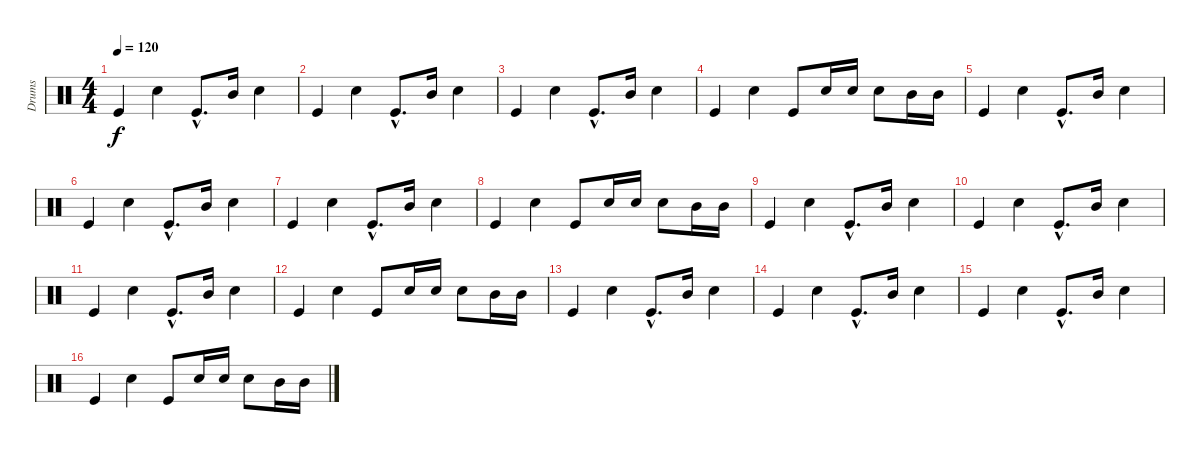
\track ("Drums" "Drums") {instrument percussion}
\staff {score}
\articulation defaults
\ts (4 4)
\tempo 120
\clef neutral
\ks c "Kick (hit)".4{dy f} "Snare (hit) 2".4 "Kick (hit)"{hac}.8{d} "Mid Tom (hit)".16 "Snare (hit) 2".4
|
"Kick (hit)".4 "Snare (hit) 2".4 "Kick (hit)"{hac}.8{d} "Mid Tom (hit)".16 "Snare (hit) 2".4 |
"Kick (hit)".4 "Snare (hit) 2".4 "Kick (hit)"{hac}.8{d} "Mid Tom (hit)".16 "Snare (hit) 2".4 |
"Kick (hit)".4 "Snare (hit) 2".4 "Kick (hit)".8 "Snare (hit) 2".16 "Snare (hit) 2".16 "Snare (hit) 2".8 "Mid Tom (hit)".16 "Mid Tom (hit)".16 |
"Kick (hit)".4 "Snare (hit) 2".4 "Kick (hit)"{hac}.8{d} "Mid Tom (hit)".16 "Snare (hit) 2".4 |
"Kick (hit)".4 "Snare (hit) 2".4 "Kick (hit)"{hac}.8{d} "Mid Tom (hit)".16 "Snare (hit) 2".4 |
"Kick (hit)".4 "Snare (hit) 2".4 "Kick (hit)"{hac}.8{d} "Mid Tom (hit)".16 "Snare (hit) 2".4 |
"Kick (hit)".4 "Snare (hit) 2".4 "Kick (hit)".8 "Snare (hit) 2".16 "Snare (hit) 2".16 "Snare (hit) 2".8 "Mid Tom (hit)".16 "Mid Tom (hit)".16 |
"Kick (hit)".4 "Snare (hit) 2".4 "Kick (hit)"{hac}.8{d} "Mid Tom (hit)".16 "Snare (hit) 2".4 |
"Kick (hit)".4 "Snare (hit) 2".4 "Kick (hit)"{hac}.8{d} "Mid Tom (hit)".16 "Snare (hit) 2".4 |
"Kick (hit)".4 "Snare (hit) 2".4 "Kick (hit)"{hac}.8{d} "Mid Tom (hit)".16 "Snare (hit) 2".4 |
"Kick (hit)".4 "Snare (hit) 2".4 "Kick (hit)".8 "Snare (hit) 2".16 "Snare (hit) 2".16 "Snare (hit) 2".8 "Mid Tom (hit)".16 "Mid Tom (hit)".16 |
"Kick (hit)".4 "Snare (hit) 2".4 "Kick (hit)"{hac}.8{d} "Mid Tom (hit)".16 "Snare (hit) 2".4 |
"Kick (hit)".4 "Snare (hit) 2".4 "Kick (hit)"{hac}.8{d} "Mid Tom (hit)".16 "Snare (hit) 2".4 |
"Kick (hit)".4 "Snare (hit) 2".4 "Kick (hit)"{hac}.8{d} "Mid Tom (hit)".16 "Snare (hit) 2".4 |
"Kick (hit)".4 "Snare (hit) 2".4 "Kick (hit)".8 "Snare (hit) 2".16 "Snare (hit) 2".16 "Snare (hit) 2".8 "Mid Tom (hit)".16 "Mid Tom (hit)".16
